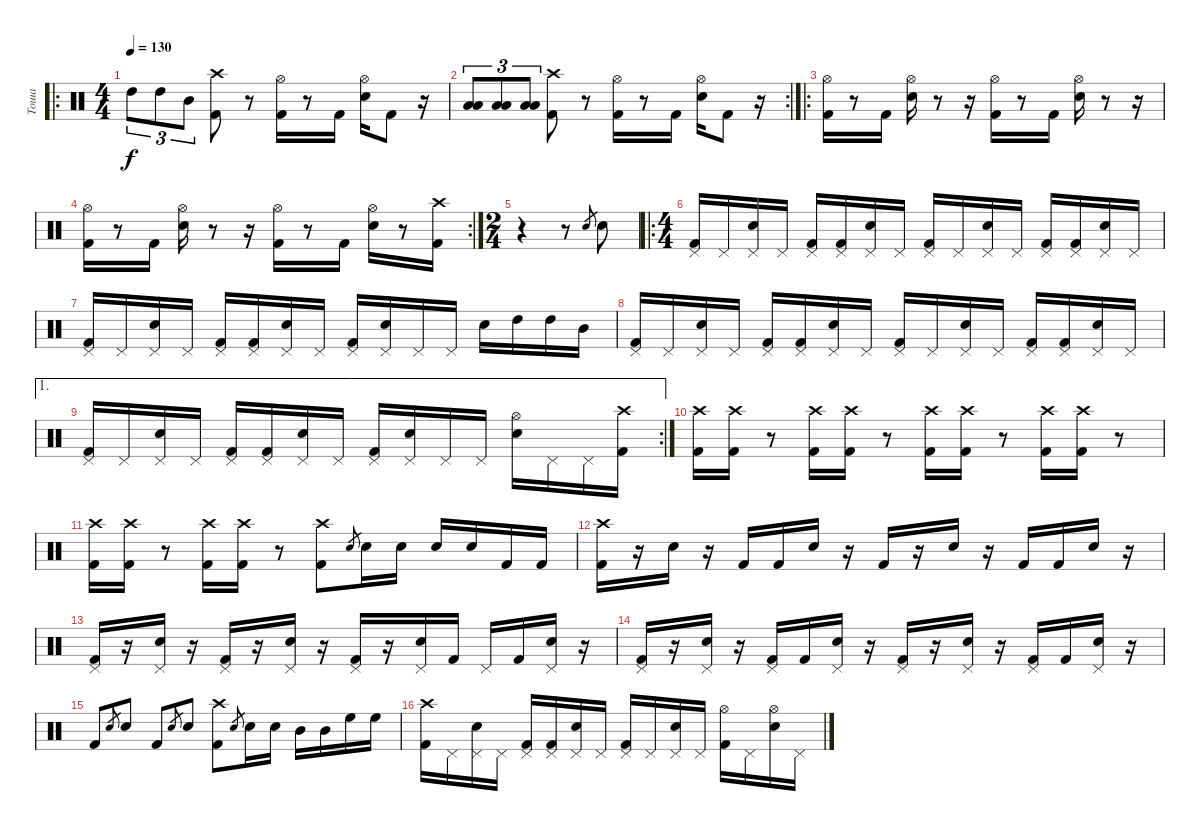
\track ("Тоша" "Тоша") {solo instrument percussion}
\staff {score}
\articulation defaults
\ro
\ts (4 4)
\tempo 130
\clef neutral
\ks c "High Tom (hit)".8{tu (3 2) dy f} "High Tom (hit)".8{tu (3 2)} "Mid Tom (hit)".8{tu (3 2)}
("Crash high (hit)" "Kick (hit) 2").8 r.8 ("Hi-Hat (open)" "Kick (hit) 2").16 r.8 "Kick (hit) 2".16 ("Hi-Hat (open)" "Electric Snare (hit)").16 "Kick (hit) 2".8 r.16 |
\rc 2
("Low Tom (hit)" "Low Tom (hit)").8{tu (3 2)} ("Low Tom (hit)" "Low Tom (hit)").8{tu (3 2)} ("Low Tom (hit)" "Low Tom (hit)").8{tu (3 2)} ("Crash high (hit)" "Kick (hit) 2").8 r.8 ("Hi-Hat (open)" "Kick (hit) 2").16 r.8 "Kick (hit) 2".16 ("Hi-Hat (open)" "Electric Snare (hit)").16 "Kick (hit) 2".8 r.16 |
\ro
("Hi-Hat (open)" "Kick (hit) 2").16 r.8 "Kick (hit) 2".16 ("Hi-Hat (open)" "Electric Snare (hit)").16 r.8 r.16 ("Hi-Hat (open)" "Kick (hit) 2").16 r.8 "Kick (hit) 2".16 ("Hi-Hat (open)" "Electric Snare (hit)").16 r.8 r.16 |
\rc 2
("Hi-Hat (open)" "Kick (hit) 2").16 r.8 "Kick (hit) 2".16 ("Hi-Hat (open)" "Electric Snare (hit)").16 r.8 r.16 ("Hi-Hat (open)" "Kick (hit) 2").16 r.8 "Kick (hit) 2".16 ("Hi-Hat (open)" "Electric Snare (hit)").16 r.8 ("Crash high (hit)" "Kick (hit) 2").16 |
\ts (2 4)
r.4 r.8 "Electric Snare (hit)".8{gr} "Electric Snare (hit)".8 |
\ro
\ts (4 4)
("Kick (hit) 2" "Pedal Hi-Hat (hit)").16 "Pedal Hi-Hat (hit)".16 ("Electric Snare (hit)" "Pedal Hi-Hat (hit)").16 "Pedal Hi-Hat (hit)".16 ("Kick (hit) 2" "Pedal Hi-Hat (hit)").16 ("Kick (hit) 2" "Pedal Hi-Hat (hit)").16 ("Electric Snare (hit)" "Pedal Hi-Hat (hit)").16 "Pedal Hi-Hat (hit)".16 ("Kick (hit) 2" "Pedal Hi-Hat (hit)").16 "Pedal Hi-Hat (hit)".16 ("Electric Snare (hit)" "Pedal Hi-Hat (hit)").16 "Pedal Hi-Hat (hit)".16 ("Kick (hit) 2" "Pedal Hi-Hat (hit)").16 ("Kick (hit) 2" "Pedal Hi-Hat (hit)").16 ("Electric Snare (hit)" "Pedal Hi-Hat (hit)").16 "Pedal Hi-Hat (hit)".16 |
("Kick (hit) 2" "Pedal Hi-Hat (hit)").16 "Pedal Hi-Hat (hit)".16 ("Electric Snare (hit)" "Pedal Hi-Hat (hit)").16 "Pedal Hi-Hat (hit)".16 ("Kick (hit) 2" "Pedal Hi-Hat (hit)").16 ("Kick (hit) 2" "Pedal Hi-Hat (hit)").16 ("Electric Snare (hit)" "Pedal Hi-Hat (hit)").16 "Pedal Hi-Hat (hit)".16 ("Kick (hit) 2" "Pedal Hi-Hat (hit)").16 ("Electric Snare (hit)" "Pedal Hi-Hat (hit)").16 "Pedal Hi-Hat (hit)".16 "Pedal Hi-Hat (hit)".16 "Electric Snare (hit)".16 "High Tom (hit)".16 "High Tom (hit)".16 "Mid Tom (hit)".16 |
("Kick (hit) 2" "Pedal Hi-Hat (hit)").16 "Pedal Hi-Hat (hit)".16 ("Electric Snare (hit)" "Pedal Hi-Hat (hit)").16 "Pedal Hi-Hat (hit)".16 ("Kick (hit) 2" "Pedal Hi-Hat (hit)").16 ("Kick (hit) 2" "Pedal Hi-Hat (hit)").16 ("Electric Snare (hit)" "Pedal Hi-Hat (hit)").16 "Pedal Hi-Hat (hit)".16 ("Kick (hit) 2" "Pedal Hi-Hat (hit)").16 "Pedal Hi-Hat (hit)".16 ("Electric Snare (hit)" "Pedal Hi-Hat (hit)").16 "Pedal Hi-Hat (hit)".16 ("Kick (hit) 2" "Pedal Hi-Hat (hit)").16 ("Kick (hit) 2" "Pedal Hi-Hat (hit)").16 ("Electric Snare (hit)" "Pedal Hi-Hat (hit)").16 "Pedal Hi-Hat (hit)".16 |
\ae 1
\rc 2
("Kick (hit) 2" "Pedal Hi-Hat (hit)").16 "Pedal Hi-Hat (hit)".16 ("Electric Snare (hit)" "Pedal Hi-Hat (hit)").16 "Pedal Hi-Hat (hit)".16 ("Kick (hit) 2" "Pedal Hi-Hat (hit)").16 ("Kick (hit) 2" "Pedal Hi-Hat (hit)").16 ("Electric Snare (hit)" "Pedal Hi-Hat (hit)").16 "Pedal Hi-Hat (hit)".16 ("Kick (hit) 2" "Pedal Hi-Hat (hit)").16 ("Electric Snare (hit)" "Pedal Hi-Hat (hit)").16 "Pedal Hi-Hat (hit)".16 "Pedal Hi-Hat (hit)".16 ("Electric Snare (hit)" "Hi-Hat (open)").16 "Pedal Hi-Hat (hit)".16 "Pedal Hi-Hat (hit)".16 ("Kick (hit) 2" "Crash high (hit)").16 |
("Kick (hit) 2" "Crash high (hit)").16 ("Kick (hit) 2" "Crash high (hit)").16 r.8 ("Kick (hit) 2" "Crash high (hit)").16 ("Kick (hit) 2" "Crash high (hit)").16 r.8 ("Kick (hit) 2" "Crash high (hit)").16 ("Kick (hit) 2" "Crash high (hit)").16 r.8 ("Kick (hit) 2" "Crash high (hit)").16 ("Kick (hit) 2" "Crash high (hit)").16 r.8 |
("Kick (hit) 2" "Crash high (hit)").16 ("Kick (hit) 2" "Crash high (hit)").16 r.8 ("Kick (hit) 2" "Crash high (hit)").16 ("Kick (hit) 2" "Crash high (hit)").16 r.8 ("Crash high (hit)" "Kick (hit) 2").8 "Electric Snare (hit)".8{gr} "Electric Snare (hit)".16 "Electric Snare (hit)".16 "Electric Snare (hit)".16 "Electric Snare (hit)".16 "Kick (hit) 2".16 "Kick (hit) 2".16 |
("Kick (hit) 2" "Crash high (hit)").16 r.16 "Electric Snare (hit)".16 r.16 "Kick (hit) 2".16 "Kick (hit) 2".16 "Electric Snare (hit)".16 r.16 "Kick (hit) 2".16 r.16 "Electric Snare (hit)".16 r.16 "Kick (hit) 2".16 "Kick (hit) 2".16 "Electric Snare (hit)".16 r.16 |
("Kick (hit) 2" "Pedal Hi-Hat (hit)").16 r.16 ("Electric Snare (hit)" "Pedal Hi-Hat (hit)").16 r.16 ("Kick (hit) 2" "Pedal Hi-Hat (hit)").16 r.16 ("Electric Snare (hit)" "Pedal Hi-Hat (hit)").16 r.16 ("Kick (hit) 2" "Pedal Hi-Hat (hit)").16 r.16 ("Electric Snare (hit)" "Pedal Hi-Hat (hit)").16 "Kick (hit) 2".16 "Pedal Hi-Hat (hit)".16 "Kick (hit) 2".16 ("Electric Snare (hit)" "Pedal Hi-Hat (hit)").16 r.16 |
("Kick (hit) 2" "Pedal Hi-Hat (hit)").16 r.16 ("Electric Snare (hit)" "Pedal Hi-Hat (hit)").16 r.16 ("Kick (hit) 2" "Pedal Hi-Hat (hit)").16 "Kick (hit) 2".16 ("Electric Snare (hit)" "Pedal Hi-Hat (hit)").16 r.16 ("Kick (hit) 2" "Pedal Hi-Hat (hit)").16 r.16 ("Electric Snare (hit)" "Pedal Hi-Hat (hit)").16 r.16 ("Kick (hit) 2" "Pedal Hi-Hat (hit)").16 "Kick (hit) 2".16 ("Electric Snare (hit)" "Pedal Hi-Hat (hit)").16 r.16 |
"Kick (hit) 2".8 "Electric Snare (hit)".8{gr} "Electric Snare (hit)".8 "Kick (hit) 2".8 "Electric Snare (hit)".8{gr} "Electric Snare (hit)".8 ("Kick (hit) 2" "Crash high (hit)").8 "Electric Snare (hit)".8{gr} "Electric Snare (hit)".16 "Electric Snare (hit)".16 "Mid Tom (hit)".16 "Mid Tom (hit)".16 "High Floor Tom (hit)".16 "High Floor Tom (hit)".16 |
("Kick (hit) 2" "Crash high (hit)").16 "Pedal Hi-Hat (hit)".16 ("Electric Snare (hit)" "Pedal Hi-Hat (hit)").16 "Pedal Hi-Hat (hit)".16 ("Kick (hit) 2" "Pedal Hi-Hat (hit)").16 ("Kick (hit) 2" "Pedal Hi-Hat (hit)").16 ("Electric Snare (hit)" "Pedal Hi-Hat (hit)").16 "Pedal Hi-Hat (hit)".16 ("Kick (hit) 2" "Pedal Hi-Hat (hit)").16 "Pedal Hi-Hat (hit)".16 ("Electric Snare (hit)" "Pedal Hi-Hat (hit)").16 "Pedal Hi-Hat (hit)".16 ("Kick (hit) 2" "Hi-Hat (open)").16 "Pedal Hi-Hat (hit)".16 ("Electric Snare (hit)" "Hi-Hat (open)").16 "Pedal Hi-Hat (hit)".16
